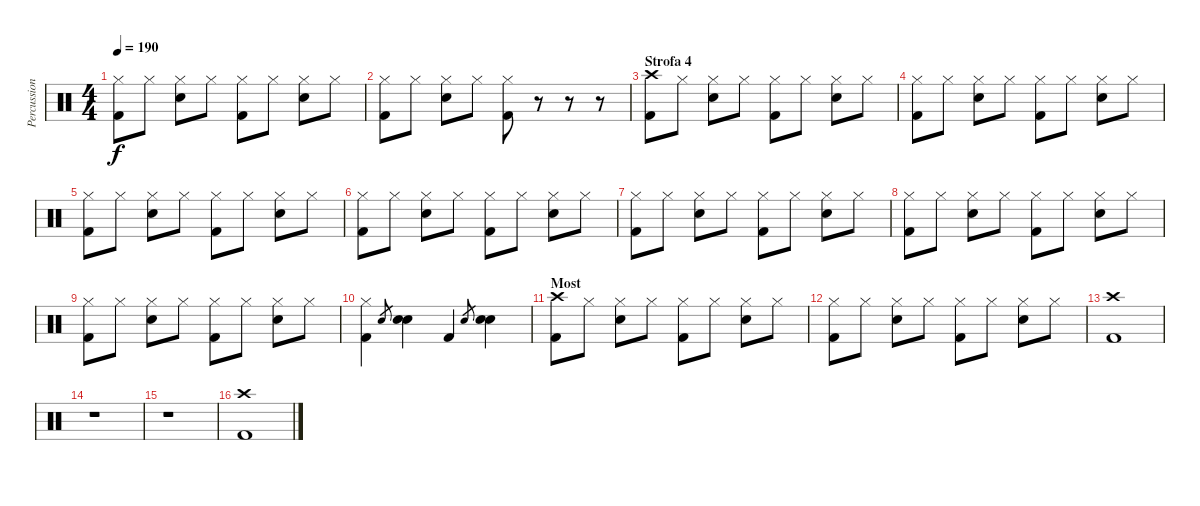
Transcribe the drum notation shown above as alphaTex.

\track ("Percussion" "Percussion") {instrument percussion}
\staff {score}
\articulation defaults
\ts (4 4)
\tempo 190
\clef neutral
\ks c
("Hi-Hat (closed)" "Kick (hit) 2").8{dy f} "Hi-Hat (closed)".8 ("Hi-Hat (closed)" "Electric Snare (hit)").8 "Hi-Hat (closed)".8 ("Hi-Hat (closed)" "Kick (hit) 2").8 "Hi-Hat (closed)".8 ("Hi-Hat (closed)" "Electric Snare (hit)").8 "Hi-Hat (closed)".8 |
("Hi-Hat (closed)" "Kick (hit) 2").8 "Hi-Hat (closed)".8 ("Hi-Hat (closed)" "Electric Snare (hit)").8 "Hi-Hat (closed)".8 ("Hi-Hat (closed)" "Kick (hit) 2").8 r.8 r.8 r.8 |
\section ("" "Strofa 4")
("Crash high (hit)" "Kick (hit) 2").8 "Hi-Hat (closed)".8 ("Hi-Hat (closed)" "Electric Snare (hit)").8 "Hi-Hat (closed)".8 ("Hi-Hat (closed)" "Kick (hit) 2").8 "Hi-Hat (closed)".8 ("Hi-Hat (closed)" "Electric Snare (hit)").8 "Hi-Hat (closed)".8 |
("Hi-Hat (closed)" "Kick (hit) 2").8 "Hi-Hat (closed)".8 ("Hi-Hat (closed)" "Electric Snare (hit)").8 "Hi-Hat (closed)".8 ("Hi-Hat (closed)" "Kick (hit) 2").8 "Hi-Hat (closed)".8 ("Hi-Hat (closed)" "Electric Snare (hit)").8 "Hi-Hat (closed)".8 |
("Hi-Hat (closed)" "Kick (hit) 2").8 "Hi-Hat (closed)".8 ("Hi-Hat (closed)" "Electric Snare (hit)").8 "Hi-Hat (closed)".8 ("Hi-Hat (closed)" "Kick (hit) 2").8 "Hi-Hat (closed)".8 ("Hi-Hat (closed)" "Electric Snare (hit)").8 "Hi-Hat (closed)".8 |
("Hi-Hat (closed)" "Kick (hit) 2").8 "Hi-Hat (closed)".8 ("Hi-Hat (closed)" "Electric Snare (hit)").8 "Hi-Hat (closed)".8 ("Hi-Hat (closed)" "Kick (hit) 2").8 "Hi-Hat (closed)".8 ("Hi-Hat (closed)" "Electric Snare (hit)").8 "Hi-Hat (closed)".8 |
("Hi-Hat (closed)" "Kick (hit) 2").8 "Hi-Hat (closed)".8 ("Hi-Hat (closed)" "Electric Snare (hit)").8 "Hi-Hat (closed)".8 ("Hi-Hat (closed)" "Kick (hit) 2").8 "Hi-Hat (closed)".8 ("Hi-Hat (closed)" "Electric Snare (hit)").8 "Hi-Hat (closed)".8 |
("Hi-Hat (closed)" "Kick (hit) 2").8 "Hi-Hat (closed)".8 ("Hi-Hat (closed)" "Electric Snare (hit)").8 "Hi-Hat (closed)".8 ("Hi-Hat (closed)" "Kick (hit) 2").8 "Hi-Hat (closed)".8 ("Hi-Hat (closed)" "Electric Snare (hit)").8 "Hi-Hat (closed)".8 |
("Hi-Hat (closed)" "Kick (hit) 2").8 "Hi-Hat (closed)".8 ("Hi-Hat (closed)" "Electric Snare (hit)").8 "Hi-Hat (closed)".8 ("Hi-Hat (closed)" "Kick (hit) 2").8 "Hi-Hat (closed)".8 ("Hi-Hat (closed)" "Electric Snare (hit)").8 "Hi-Hat (closed)".8 |
("Hi-Hat (closed)" "Kick (hit) 2").4 "Electric Snare (hit)".8{gr} ("Electric Snare (hit)" "Electric Snare (hit)").4 "Kick (hit) 2".4 "Electric Snare (hit)".8{gr} ("Electric Snare (hit)" "Electric Snare (hit)").4 |
\section ("" "Most")
("Crash high (hit)" "Kick (hit) 2").8 "Hi-Hat (closed)".8 ("Hi-Hat (closed)" "Electric Snare (hit)").8 "Hi-Hat (closed)".8 ("Hi-Hat (closed)" "Kick (hit) 2").8 "Hi-Hat (closed)".8 ("Hi-Hat (closed)" "Electric Snare (hit)").8 "Hi-Hat (closed)".8 |
("Hi-Hat (closed)" "Kick (hit) 2").8 "Hi-Hat (closed)".8 ("Hi-Hat (closed)" "Electric Snare (hit)").8 "Hi-Hat (closed)".8 ("Hi-Hat (closed)" "Kick (hit) 2").8 "Hi-Hat (closed)".8 ("Hi-Hat (closed)" "Electric Snare (hit)").8 "Hi-Hat (closed)".8 |
("Crash high (hit)" "Kick (hit) 2").1 |
r.1 |
r.1 |
("Crash high (hit)" "Kick (hit) 2").1
